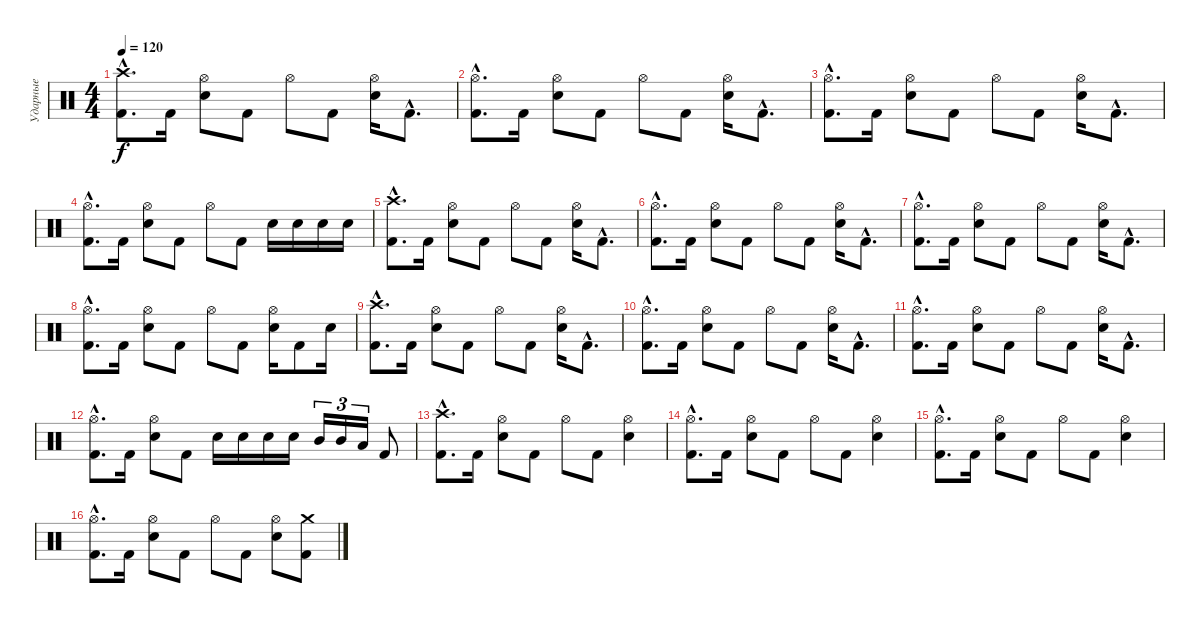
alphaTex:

\track ("Ударные" "Ударные") {instrument percussion}
\staff {score}
\articulation defaults
\ts (4 4)
\tempo 120
\clef neutral
\ks c
("Crash high (hit)"{hac} "Kick (hit) 2"{hac}).8{d dy f} "Kick (hit) 2".16 ("Hi-Hat (open)" "Electric Snare (hit)").8 "Kick (hit) 2".8 "Hi-Hat (open)".8 "Kick (hit) 2".8 ("Hi-Hat (open)" "Electric Snare (hit)").16 "Kick (hit) 2"{hac}.8{d} |
("Hi-Hat (open)"{hac} "Kick (hit) 2"{hac}).8{d} "Kick (hit) 2".16 ("Hi-Hat (open)" "Electric Snare (hit)").8 "Kick (hit) 2".8 "Hi-Hat (open)".8 "Kick (hit) 2".8 ("Hi-Hat (open)" "Electric Snare (hit)").16 "Kick (hit) 2"{hac}.8{d} |
("Hi-Hat (open)"{hac} "Kick (hit) 2"{hac}).8{d} "Kick (hit) 2".16 ("Hi-Hat (open)" "Electric Snare (hit)").8 "Kick (hit) 2".8 "Hi-Hat (open)".8 "Kick (hit) 2".8 ("Hi-Hat (open)" "Electric Snare (hit)").16 "Kick (hit) 2"{hac}.8{d} |
("Hi-Hat (open)"{hac} "Kick (hit) 2"{hac}).8{d} "Kick (hit) 2".16 ("Hi-Hat (open)" "Electric Snare (hit)").8 "Kick (hit) 2".8 "Hi-Hat (open)".8 "Kick (hit) 2".8 "Electric Snare (hit)".16 "Electric Snare (hit)".16 "Electric Snare (hit)".16 "Electric Snare (hit)".16 |
("Crash high (hit)"{hac} "Kick (hit) 2"{hac}).8{d} "Kick (hit) 2".16 ("Hi-Hat (open)" "Electric Snare (hit)").8 "Kick (hit) 2".8 "Hi-Hat (open)".8 "Kick (hit) 2".8 ("Hi-Hat (open)" "Electric Snare (hit)").16 "Kick (hit) 2"{hac}.8{d} |
("Hi-Hat (open)"{hac} "Kick (hit) 2"{hac}).8{d} "Kick (hit) 2".16 ("Hi-Hat (open)" "Electric Snare (hit)").8 "Kick (hit) 2".8 "Hi-Hat (open)".8 "Kick (hit) 2".8 ("Hi-Hat (open)" "Electric Snare (hit)").16 "Kick (hit) 2"{hac}.8{d} |
("Hi-Hat (open)"{hac} "Kick (hit) 2"{hac}).8{d} "Kick (hit) 2".16 ("Hi-Hat (open)" "Electric Snare (hit)").8 "Kick (hit) 2".8 "Hi-Hat (open)".8 "Kick (hit) 2".8 ("Hi-Hat (open)" "Electric Snare (hit)").16 "Kick (hit) 2"{hac}.8{d} |
("Hi-Hat (open)"{hac} "Kick (hit) 2"{hac}).8{d} "Kick (hit) 2".16 ("Hi-Hat (open)" "Electric Snare (hit)").8 "Kick (hit) 2".8 "Hi-Hat (open)".8 "Kick (hit) 2".8 ("Hi-Hat (open)" "Electric Snare (hit)").16 "Kick (hit) 2".8 "Electric Snare (hit)".16 |
("Crash high (hit)"{hac} "Kick (hit) 2"{hac}).8{d} "Kick (hit) 2".16 ("Hi-Hat (open)" "Electric Snare (hit)").8 "Kick (hit) 2".8 "Hi-Hat (open)".8 "Kick (hit) 2".8 ("Hi-Hat (open)" "Electric Snare (hit)").16 "Kick (hit) 2"{hac}.8{d} |
("Hi-Hat (open)"{hac} "Kick (hit) 2"{hac}).8{d} "Kick (hit) 2".16 ("Hi-Hat (open)" "Electric Snare (hit)").8 "Kick (hit) 2".8 "Hi-Hat (open)".8 "Kick (hit) 2".8 ("Hi-Hat (open)" "Electric Snare (hit)").16 "Kick (hit) 2"{hac}.8{d} |
("Hi-Hat (open)"{hac} "Kick (hit) 2"{hac}).8{d} "Kick (hit) 2".16 ("Hi-Hat (open)" "Electric Snare (hit)").8 "Kick (hit) 2".8 "Hi-Hat (open)".8 "Kick (hit) 2".8 ("Hi-Hat (open)" "Electric Snare (hit)").16 "Kick (hit) 2"{hac}.8{d} |
("Hi-Hat (open)"{hac} "Kick (hit) 2"{hac}).8{d} "Kick (hit) 2".16 ("Hi-Hat (open)" "Electric Snare (hit)").8 "Kick (hit) 2".8 "Electric Snare (hit)".16 "Electric Snare (hit)".16 "Electric Snare (hit)".16 "Electric Snare (hit)".16 "Mid Tom (hit)".16{tu (3 2)} "Mid Tom (hit)".16{tu (3 2)} "Low Tom (hit)".16{tu (3 2)} "Kick (hit) 2".8 |
("Crash high (hit)"{hac} "Kick (hit) 2"{hac}).8{d} "Kick (hit) 2".16 ("Hi-Hat (open)" "Electric Snare (hit)").8 "Kick (hit) 2".8 "Hi-Hat (open)".8 "Kick (hit) 2".8 ("Hi-Hat (open)" "Electric Snare (hit)").4 |
("Hi-Hat (open)"{hac} "Kick (hit) 2"{hac}).8{d} "Kick (hit) 2".16 ("Hi-Hat (open)" "Electric Snare (hit)").8 "Kick (hit) 2".8 "Hi-Hat (open)".8 "Kick (hit) 2".8 ("Hi-Hat (open)" "Electric Snare (hit)").4 |
("Hi-Hat (open)"{hac} "Kick (hit) 2"{hac}).8{d} "Kick (hit) 2".16 ("Hi-Hat (open)" "Electric Snare (hit)").8 "Kick (hit) 2".8 "Hi-Hat (open)".8 "Kick (hit) 2".8 ("Hi-Hat (open)" "Electric Snare (hit)").4 |
("Hi-Hat (open)"{hac} "Kick (hit) 2"{hac}).8{d} "Kick (hit) 2".16 ("Hi-Hat (open)" "Electric Snare (hit)").8 "Kick (hit) 2".8 "Hi-Hat (open)".8 "Kick (hit) 2".8 ("Hi-Hat (open)" "Electric Snare (hit)").8 ("Crash medium (hit)" "Kick (hit) 2").8
